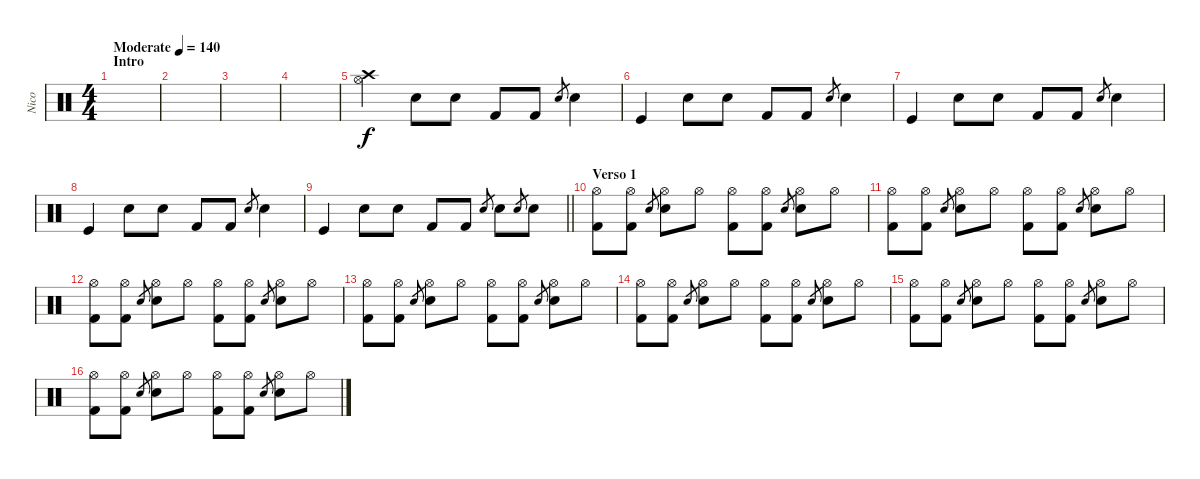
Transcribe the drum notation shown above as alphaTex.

\track ("Nico" "Nico") {instrument percussion}
\staff {score}
\articulation defaults
\ts (4 4)
\section ("" "Intro")
\tempo (140 "Moderate")
\clef neutral
\ks c
|
|
|
|
("Hi-Hat (open)" "Crash high (hit)").4 "Snare (hit) 2".8 "Snare (hit) 2".8 "Kick (hit) 2".8 "Kick (hit) 2".8 "Snare (hit) 2".8{gr} "Snare (hit) 2".4 |
"Kick (hit)".4 "Snare (hit) 2".8 "Snare (hit) 2".8 "Kick (hit) 2".8 "Kick (hit) 2".8 "Snare (hit) 2".8{gr} "Snare (hit) 2".4 |
"Kick (hit)".4 "Snare (hit) 2".8 "Snare (hit) 2".8 "Kick (hit) 2".8 "Kick (hit) 2".8 "Snare (hit) 2".8{gr} "Snare (hit) 2".4 |
"Kick (hit)".4 "Snare (hit) 2".8 "Snare (hit) 2".8 "Kick (hit) 2".8 "Kick (hit) 2".8 "Snare (hit) 2".8{gr} "Snare (hit) 2".4 |
\barLineRight lightlight "Kick (hit)".4 "Snare (hit) 2".8 "Snare (hit) 2".8 "Kick (hit) 2".8 "Kick (hit) 2".8 "Snare (hit) 2".8{gr} "Snare (hit) 2".8 "Snare (hit) 2".8{gr} "Snare (hit) 2".8
|
\section ("" "Verso 1")
("Kick (hit) 2" "Hi-Hat (open)").8 ("Kick (hit) 2" "Hi-Hat (open)").8 "Snare (hit) 2".8{gr} ("Snare (hit) 2" "Hi-Hat (open)").8 "Hi-Hat (open)".8 ("Kick (hit) 2" "Hi-Hat (open)").8 ("Kick (hit) 2" "Hi-Hat (open)").8 "Snare (hit) 2".8{gr} ("Snare (hit) 2" "Hi-Hat (open)").8 "Hi-Hat (open)".8 |
("Kick (hit) 2" "Hi-Hat (open)").8 ("Kick (hit) 2" "Hi-Hat (open)").8 "Snare (hit) 2".8{gr} ("Snare (hit) 2" "Hi-Hat (open)").8 "Hi-Hat (open)".8 ("Kick (hit) 2" "Hi-Hat (open)").8 ("Kick (hit) 2" "Hi-Hat (open)").8 "Snare (hit) 2".8{gr} ("Snare (hit) 2" "Hi-Hat (open)").8 "Hi-Hat (open)".8 |
("Kick (hit) 2" "Hi-Hat (open)").8 ("Kick (hit) 2" "Hi-Hat (open)").8 "Snare (hit) 2".8{gr} ("Snare (hit) 2" "Hi-Hat (open)").8 "Hi-Hat (open)".8 ("Kick (hit) 2" "Hi-Hat (open)").8 ("Kick (hit) 2" "Hi-Hat (open)").8 "Snare (hit) 2".8{gr} ("Snare (hit) 2" "Hi-Hat (open)").8 "Hi-Hat (open)".8 |
("Kick (hit) 2" "Hi-Hat (open)").8 ("Kick (hit) 2" "Hi-Hat (open)").8 "Snare (hit) 2".8{gr} ("Snare (hit) 2" "Hi-Hat (open)").8 "Hi-Hat (open)".8 ("Kick (hit) 2" "Hi-Hat (open)").8 ("Kick (hit) 2" "Hi-Hat (open)").8 "Snare (hit) 2".8{gr} ("Snare (hit) 2" "Hi-Hat (open)").8 "Hi-Hat (open)".8 |
("Kick (hit) 2" "Hi-Hat (open)").8 ("Kick (hit) 2" "Hi-Hat (open)").8 "Snare (hit) 2".8{gr} ("Snare (hit) 2" "Hi-Hat (open)").8 "Hi-Hat (open)".8 ("Kick (hit) 2" "Hi-Hat (open)").8 ("Kick (hit) 2" "Hi-Hat (open)").8 "Snare (hit) 2".8{gr} ("Snare (hit) 2" "Hi-Hat (open)").8 "Hi-Hat (open)".8 |
("Kick (hit) 2" "Hi-Hat (open)").8 ("Kick (hit) 2" "Hi-Hat (open)").8 "Snare (hit) 2".8{gr} ("Snare (hit) 2" "Hi-Hat (open)").8 "Hi-Hat (open)".8 ("Kick (hit) 2" "Hi-Hat (open)").8 ("Kick (hit) 2" "Hi-Hat (open)").8 "Snare (hit) 2".8{gr} ("Snare (hit) 2" "Hi-Hat (open)").8 "Hi-Hat (open)".8 |
("Kick (hit) 2" "Hi-Hat (open)").8 ("Kick (hit) 2" "Hi-Hat (open)").8 "Snare (hit) 2".8{gr} ("Snare (hit) 2" "Hi-Hat (open)").8 "Hi-Hat (open)".8 ("Kick (hit) 2" "Hi-Hat (open)").8 ("Kick (hit) 2" "Hi-Hat (open)").8 "Snare (hit) 2".8{gr} ("Snare (hit) 2" "Hi-Hat (open)").8 "Hi-Hat (open)".8
